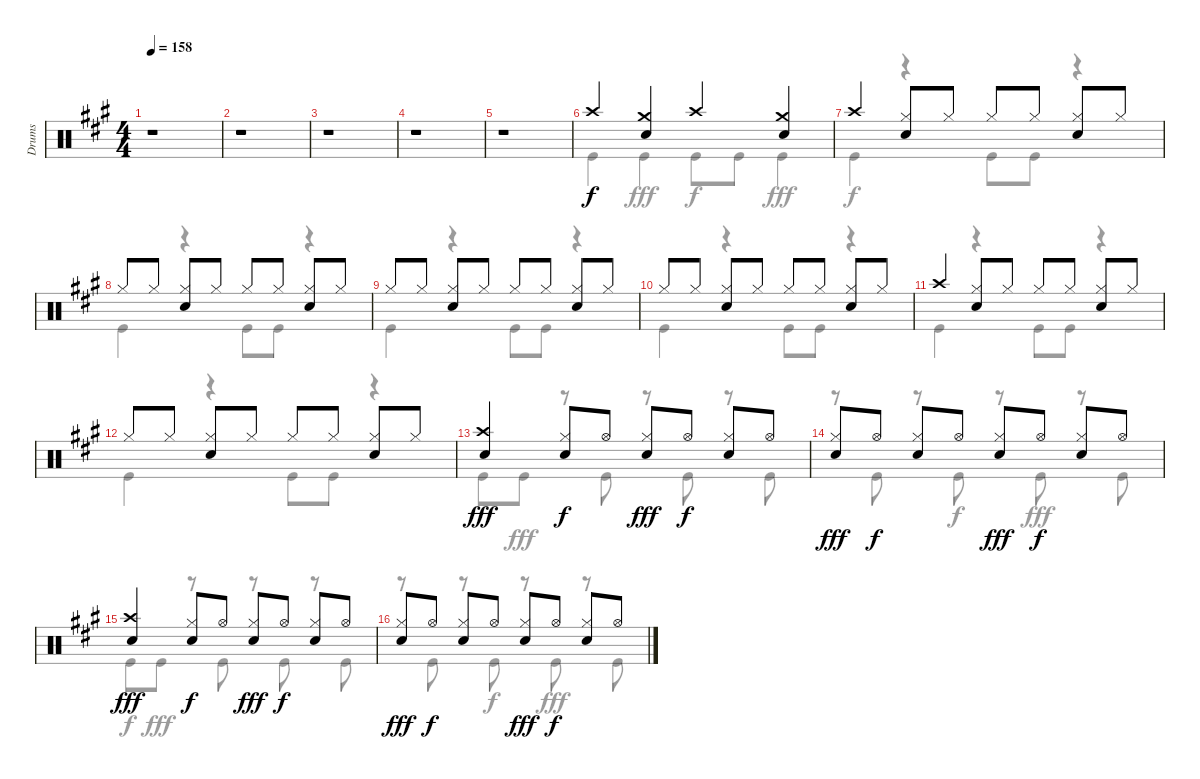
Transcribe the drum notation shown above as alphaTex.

\track ("Drums" "Drums") {instrument percussion}
\staff {score}
\articulation defaults
\voice
\ts (4 4)
\tempo 158
\clef neutral
\ks a
r.1{dy f} |
r.1 |
r.1 |
r.1 |
r.1 |
"Crash high (hit)".4 ("Crash medium (hit)" "Snare (hit) 2").4 "Crash high (hit)".4 ("Crash medium (hit)" "Snare (hit) 2").4 |
"Crash high (hit)".4 ("Hi-Hat (closed)" "Snare (hit) 2").8 "Hi-Hat (closed)".8 "Hi-Hat (closed)".8 "Hi-Hat (closed)".8 ("Hi-Hat (closed)" "Snare (hit) 2").8 "Hi-Hat (closed)".8 |
"Hi-Hat (closed)".8 "Hi-Hat (closed)".8 ("Hi-Hat (closed)" "Snare (hit) 2").8 "Hi-Hat (closed)".8 "Hi-Hat (closed)".8 "Hi-Hat (closed)".8 ("Hi-Hat (closed)" "Snare (hit) 2").8 "Hi-Hat (closed)".8 |
"Hi-Hat (closed)".8 "Hi-Hat (closed)".8 ("Hi-Hat (closed)" "Snare (hit) 2").8 "Hi-Hat (closed)".8 "Hi-Hat (closed)".8 "Hi-Hat (closed)".8 ("Hi-Hat (closed)" "Snare (hit) 2").8 "Hi-Hat (closed)".8 |
"Hi-Hat (closed)".8 "Hi-Hat (closed)".8 ("Hi-Hat (closed)" "Snare (hit) 2").8 "Hi-Hat (closed)".8 "Hi-Hat (closed)".8 "Hi-Hat (closed)".8 ("Hi-Hat (closed)" "Snare (hit) 2").8 "Hi-Hat (closed)".8 |
"Crash high (hit)".4 ("Hi-Hat (closed)" "Snare (hit) 2").8 "Hi-Hat (closed)".8 "Hi-Hat (closed)".8 "Hi-Hat (closed)".8 ("Hi-Hat (closed)" "Snare (hit) 2").8 "Hi-Hat (closed)".8 |
"Hi-Hat (closed)".8 "Hi-Hat (closed)".8 ("Hi-Hat (closed)" "Snare (hit) 2").8 "Hi-Hat (closed)".8 "Hi-Hat (closed)".8 "Hi-Hat (closed)".8 ("Hi-Hat (closed)" "Snare (hit) 2").8 "Hi-Hat (closed)".8 |
("Crash high (hit)" "Snare (hit) 2").4{dy fff} ("Hi-Hat (closed)" "Snare (hit) 2").8{dy f} "Hi-Hat (open)".8 ("Hi-Hat (closed)" "Snare (hit) 2").8{dy fff} "Hi-Hat (open)".8{dy f} ("Hi-Hat (closed)" "Snare (hit) 2").8 "Hi-Hat (open)".8 |
("Hi-Hat (closed)" "Snare (hit) 2").8{dy fff} "Hi-Hat (open)".8{dy f} ("Hi-Hat (closed)" "Snare (hit) 2").8 "Hi-Hat (open)".8 ("Hi-Hat (closed)" "Snare (hit) 2").8{dy fff} "Hi-Hat (open)".8{dy f} ("Hi-Hat (closed)" "Snare (hit) 2").8 "Hi-Hat (open)".8 |
("Crash high (hit)" "Snare (hit) 2").4{dy fff} ("Hi-Hat (closed)" "Snare (hit) 2").8{dy f} "Hi-Hat (open)".8 ("Hi-Hat (closed)" "Snare (hit) 2").8{dy fff} "Hi-Hat (open)".8{dy f} ("Hi-Hat (closed)" "Snare (hit) 2").8 "Hi-Hat (open)".8 |
("Hi-Hat (closed)" "Snare (hit) 2").8{dy fff} "Hi-Hat (open)".8{dy f} ("Hi-Hat (closed)" "Snare (hit) 2").8 "Hi-Hat (open)".8 ("Hi-Hat (closed)" "Snare (hit) 2").8{dy fff} "Hi-Hat (open)".8{dy f} ("Hi-Hat (closed)" "Snare (hit) 2").8 "Hi-Hat (open)".8
\voice
\clef neutral
\ottava regular
\simile none
\ks a
|
|
|
|
|
"Kick (hit)".4 "Kick (hit)".4{dy fff} "Kick (hit)".8{dy f} "Kick (hit)".8 "Kick (hit)".4{dy fff} |
"Kick (hit)".4{dy f} r.4 "Kick (hit)".8 "Kick (hit)".8 r.4 |
"Kick (hit)".4 r.4 "Kick (hit)".8 "Kick (hit)".8 r.4 |
"Kick (hit)".4 r.4 "Kick (hit)".8 "Kick (hit)".8 r.4 |
"Kick (hit)".4 r.4 "Kick (hit)".8 "Kick (hit)".8 r.4 |
"Kick (hit)".4 r.4 "Kick (hit)".8 "Kick (hit)".8 r.4 |
"Kick (hit)".4 r.4 "Kick (hit)".8 "Kick (hit)".8 r.4 |
"Kick (hit)".8 "Kick (hit)".8{dy fff} r.8 "Kick (hit)".8 r.8 "Kick (hit)".8 r.8 "Kick (hit)".8 |
r.8 "Kick (hit)".8 r.8 "Kick (hit)".8{dy f} r.8 "Kick (hit)".8{dy fff} r.8 "Kick (hit)".8 |
"Kick (hit)".8{dy f} "Kick (hit)".8{dy fff} r.8 "Kick (hit)".8 r.8 "Kick (hit)".8 r.8 "Kick (hit)".8 |
r.8 "Kick (hit)".8 r.8 "Kick (hit)".8{dy f} r.8 "Kick (hit)".8{dy fff} r.8 "Kick (hit)".8
